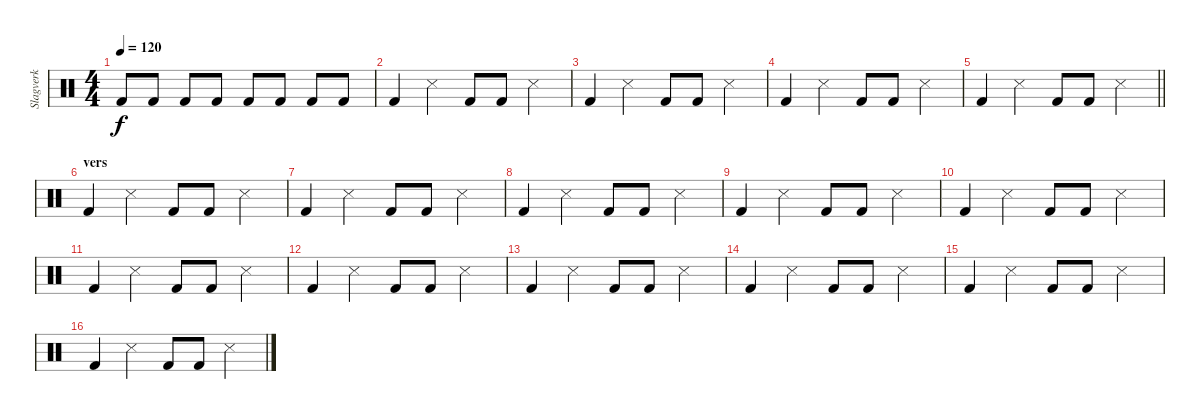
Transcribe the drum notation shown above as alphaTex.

\track ("Slagverk" "Slagverk") {instrument percussion}
\staff {score}
\articulation defaults
\ts (4 4)
\tempo 120
\clef neutral
\ks c "Kick (hit) 2".8{dy f} "Kick (hit) 2".8 "Kick (hit) 2".8 "Kick (hit) 2".8 "Kick (hit) 2".8 "Kick (hit) 2".8 "Kick (hit) 2".8 "Kick (hit) 2".8
|
"Kick (hit) 2".4 "Snare (side stick) 3".4 "Kick (hit) 2".8 "Kick (hit) 2".8 "Snare (side stick) 3".4 |
"Kick (hit) 2".4 "Snare (side stick) 3".4 "Kick (hit) 2".8 "Kick (hit) 2".8 "Snare (side stick) 3".4 |
"Kick (hit) 2".4 "Snare (side stick) 3".4 "Kick (hit) 2".8 "Kick (hit) 2".8 "Snare (side stick) 3".4 |
\barLineRight lightlight "Kick (hit) 2".4 "Snare (side stick) 3".4 "Kick (hit) 2".8 "Kick (hit) 2".8 "Snare (side stick) 3".4
|
\section ("" "vers")
"Kick (hit) 2".4 "Snare (side stick) 3".4 "Kick (hit) 2".8 "Kick (hit) 2".8 "Snare (side stick) 3".4 |
"Kick (hit) 2".4 "Snare (side stick) 3".4 "Kick (hit) 2".8 "Kick (hit) 2".8 "Snare (side stick) 3".4 |
"Kick (hit) 2".4 "Snare (side stick) 3".4 "Kick (hit) 2".8 "Kick (hit) 2".8 "Snare (side stick) 3".4 |
"Kick (hit) 2".4 "Snare (side stick) 3".4 "Kick (hit) 2".8 "Kick (hit) 2".8 "Snare (side stick) 3".4 |
"Kick (hit) 2".4 "Snare (side stick) 3".4 "Kick (hit) 2".8 "Kick (hit) 2".8 "Snare (side stick) 3".4 |
"Kick (hit) 2".4 "Snare (side stick) 3".4 "Kick (hit) 2".8 "Kick (hit) 2".8 "Snare (side stick) 3".4 |
"Kick (hit) 2".4 "Snare (side stick) 3".4 "Kick (hit) 2".8 "Kick (hit) 2".8 "Snare (side stick) 3".4 |
"Kick (hit) 2".4 "Snare (side stick) 3".4 "Kick (hit) 2".8 "Kick (hit) 2".8 "Snare (side stick) 3".4 |
"Kick (hit) 2".4 "Snare (side stick) 3".4 "Kick (hit) 2".8 "Kick (hit) 2".8 "Snare (side stick) 3".4 |
"Kick (hit) 2".4 "Snare (side stick) 3".4 "Kick (hit) 2".8 "Kick (hit) 2".8 "Snare (side stick) 3".4 |
"Kick (hit) 2".4 "Snare (side stick) 3".4 "Kick (hit) 2".8 "Kick (hit) 2".8 "Snare (side stick) 3".4
